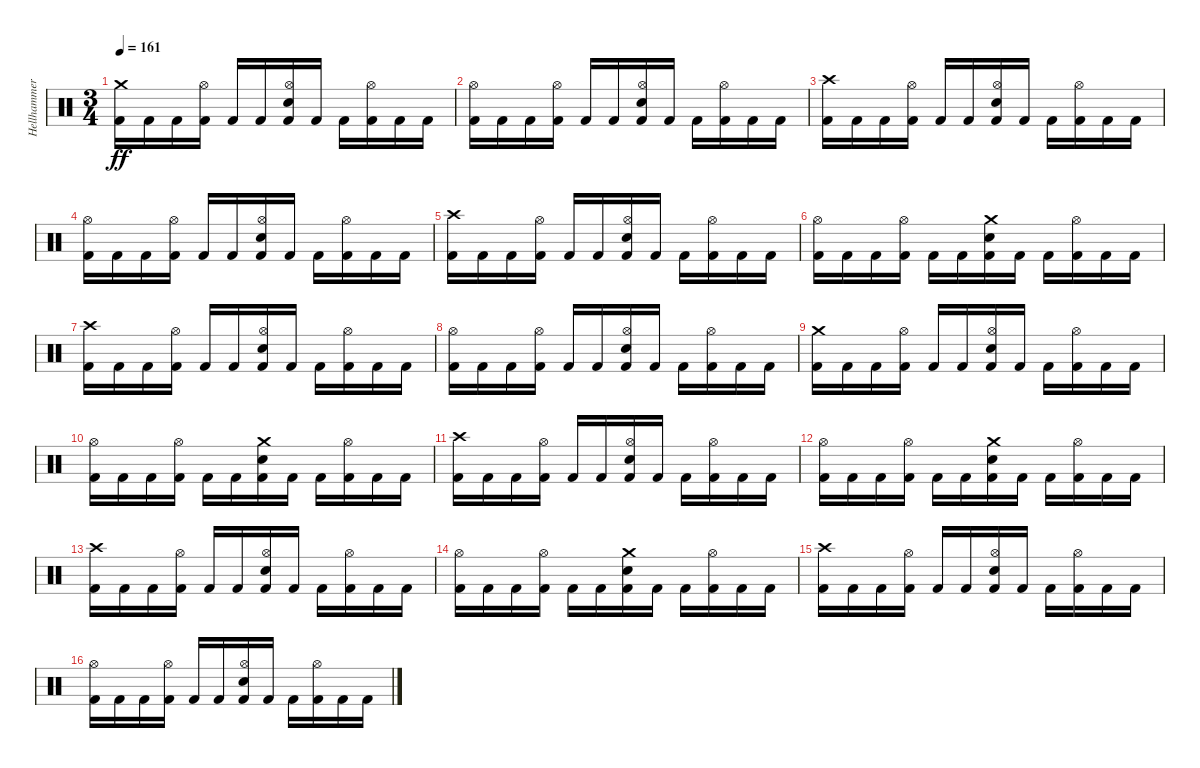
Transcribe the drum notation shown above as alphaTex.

\track ("Hellhammer" "Hellhammer") {instrument percussion}
\staff {score}
\articulation defaults
\ts (3 4)
\tempo 161
\clef neutral
\ks c
("Crash medium (hit)" "Kick (hit) 2").16{dy ff} "Kick (hit) 2".16 "Kick (hit) 2".16 ("Hi-Hat (open)" "Kick (hit) 2").16 "Kick (hit) 2".16 "Kick (hit) 2".16 ("Hi-Hat (open)" "Snare (hit) 2" "Kick (hit) 2").16 "Kick (hit) 2".16 "Kick (hit) 2".16 ("Hi-Hat (open)" "Kick (hit) 2").16 "Kick (hit) 2".16 "Kick (hit) 2".16 |
("Hi-Hat (open)" "Kick (hit) 2").16 "Kick (hit) 2".16 "Kick (hit) 2".16 ("Hi-Hat (open)" "Kick (hit) 2").16 "Kick (hit) 2".16 "Kick (hit) 2".16 ("Hi-Hat (open)" "Snare (hit) 2" "Kick (hit) 2").16 "Kick (hit) 2".16 "Kick (hit) 2".16 ("Hi-Hat (open)" "Kick (hit) 2").16 "Kick (hit) 2".16 "Kick (hit) 2".16 |
("Crash high (hit)" "Kick (hit) 2").16 "Kick (hit) 2".16 "Kick (hit) 2".16 ("Hi-Hat (open)" "Kick (hit) 2").16 "Kick (hit) 2".16 "Kick (hit) 2".16 ("Hi-Hat (open)" "Snare (hit) 2" "Kick (hit) 2").16 "Kick (hit) 2".16 "Kick (hit) 2".16 ("Hi-Hat (open)" "Kick (hit) 2").16 "Kick (hit) 2".16 "Kick (hit) 2".16 |
("Hi-Hat (open)" "Kick (hit) 2").16 "Kick (hit) 2".16 "Kick (hit) 2".16 ("Hi-Hat (open)" "Kick (hit) 2").16 "Kick (hit) 2".16 "Kick (hit) 2".16 ("Hi-Hat (open)" "Snare (hit) 2" "Kick (hit) 2").16 "Kick (hit) 2".16 "Kick (hit) 2".16 ("Hi-Hat (open)" "Kick (hit) 2").16 "Kick (hit) 2".16 "Kick (hit) 2".16 |
("Crash high (hit)" "Kick (hit) 2").16 "Kick (hit) 2".16 "Kick (hit) 2".16 ("Hi-Hat (open)" "Kick (hit) 2").16 "Kick (hit) 2".16 "Kick (hit) 2".16 ("Hi-Hat (open)" "Snare (hit) 2" "Kick (hit) 2").16 "Kick (hit) 2".16 "Kick (hit) 2".16 ("Hi-Hat (open)" "Kick (hit) 2").16 "Kick (hit) 2".16 "Kick (hit) 2".16 |
("Hi-Hat (open)" "Kick (hit) 2").16 "Kick (hit) 2".16 "Kick (hit) 2".16 ("Hi-Hat (open)" "Kick (hit) 2").16 "Kick (hit) 2".16 "Kick (hit) 2".16 ("Crash medium (hit)" "Snare (hit) 2" "Kick (hit) 2").16 "Kick (hit) 2".16 "Kick (hit) 2".16 ("Hi-Hat (open)" "Kick (hit) 2").16 "Kick (hit) 2".16 "Kick (hit) 2".16 |
("Crash high (hit)" "Kick (hit) 2").16 "Kick (hit) 2".16 "Kick (hit) 2".16 ("Hi-Hat (open)" "Kick (hit) 2").16 "Kick (hit) 2".16 "Kick (hit) 2".16 ("Hi-Hat (open)" "Snare (hit) 2" "Kick (hit) 2").16 "Kick (hit) 2".16 "Kick (hit) 2".16 ("Hi-Hat (open)" "Kick (hit) 2").16 "Kick (hit) 2".16 "Kick (hit) 2".16 |
("Hi-Hat (open)" "Kick (hit) 2").16 "Kick (hit) 2".16 "Kick (hit) 2".16 ("Hi-Hat (open)" "Kick (hit) 2").16 "Kick (hit) 2".16 "Kick (hit) 2".16 ("Hi-Hat (open)" "Snare (hit) 2" "Kick (hit) 2").16 "Kick (hit) 2".16 "Kick (hit) 2".16 ("Hi-Hat (open)" "Kick (hit) 2").16 "Kick (hit) 2".16 "Kick (hit) 2".16 |
("Crash medium (hit)" "Kick (hit) 2").16 "Kick (hit) 2".16 "Kick (hit) 2".16 ("Hi-Hat (open)" "Kick (hit) 2").16 "Kick (hit) 2".16 "Kick (hit) 2".16 ("Hi-Hat (open)" "Snare (hit) 2" "Kick (hit) 2").16 "Kick (hit) 2".16 "Kick (hit) 2".16 ("Hi-Hat (open)" "Kick (hit) 2").16 "Kick (hit) 2".16 "Kick (hit) 2".16 |
("Hi-Hat (open)" "Kick (hit) 2").16 "Kick (hit) 2".16 "Kick (hit) 2".16 ("Hi-Hat (open)" "Kick (hit) 2").16 "Kick (hit) 2".16 "Kick (hit) 2".16 ("Crash medium (hit)" "Snare (hit) 2" "Kick (hit) 2").16 "Kick (hit) 2".16 "Kick (hit) 2".16 ("Hi-Hat (open)" "Kick (hit) 2").16 "Kick (hit) 2".16 "Kick (hit) 2".16 |
("Crash high (hit)" "Kick (hit) 2").16 "Kick (hit) 2".16 "Kick (hit) 2".16 ("Hi-Hat (open)" "Kick (hit) 2").16 "Kick (hit) 2".16 "Kick (hit) 2".16 ("Hi-Hat (open)" "Snare (hit) 2" "Kick (hit) 2").16 "Kick (hit) 2".16 "Kick (hit) 2".16 ("Hi-Hat (open)" "Kick (hit) 2").16 "Kick (hit) 2".16 "Kick (hit) 2".16 |
("Hi-Hat (open)" "Kick (hit) 2").16 "Kick (hit) 2".16 "Kick (hit) 2".16 ("Hi-Hat (open)" "Kick (hit) 2").16 "Kick (hit) 2".16 "Kick (hit) 2".16 ("Crash medium (hit)" "Snare (hit) 2" "Kick (hit) 2").16 "Kick (hit) 2".16 "Kick (hit) 2".16 ("Hi-Hat (open)" "Kick (hit) 2").16 "Kick (hit) 2".16 "Kick (hit) 2".16 |
("Crash high (hit)" "Kick (hit) 2").16 "Kick (hit) 2".16 "Kick (hit) 2".16 ("Hi-Hat (open)" "Kick (hit) 2").16 "Kick (hit) 2".16 "Kick (hit) 2".16 ("Hi-Hat (open)" "Snare (hit) 2" "Kick (hit) 2").16 "Kick (hit) 2".16 "Kick (hit) 2".16 ("Hi-Hat (open)" "Kick (hit) 2").16 "Kick (hit) 2".16 "Kick (hit) 2".16 |
("Hi-Hat (open)" "Kick (hit) 2").16 "Kick (hit) 2".16 "Kick (hit) 2".16 ("Hi-Hat (open)" "Kick (hit) 2").16 "Kick (hit) 2".16 "Kick (hit) 2".16 ("Crash medium (hit)" "Snare (hit) 2" "Kick (hit) 2").16 "Kick (hit) 2".16 "Kick (hit) 2".16 ("Hi-Hat (open)" "Kick (hit) 2").16 "Kick (hit) 2".16 "Kick (hit) 2".16 |
("Crash high (hit)" "Kick (hit) 2").16 "Kick (hit) 2".16 "Kick (hit) 2".16 ("Hi-Hat (open)" "Kick (hit) 2").16 "Kick (hit) 2".16 "Kick (hit) 2".16 ("Hi-Hat (open)" "Snare (hit) 2" "Kick (hit) 2").16 "Kick (hit) 2".16 "Kick (hit) 2".16 ("Hi-Hat (open)" "Kick (hit) 2").16 "Kick (hit) 2".16 "Kick (hit) 2".16 |
("Hi-Hat (open)" "Kick (hit) 2").16 "Kick (hit) 2".16 "Kick (hit) 2".16 ("Hi-Hat (open)" "Kick (hit) 2").16 "Kick (hit) 2".16 "Kick (hit) 2".16 ("Hi-Hat (open)" "Snare (hit) 2" "Kick (hit) 2").16 "Kick (hit) 2".16 "Kick (hit) 2".16 ("Hi-Hat (open)" "Kick (hit) 2").16 "Kick (hit) 2".16 "Kick (hit) 2".16
